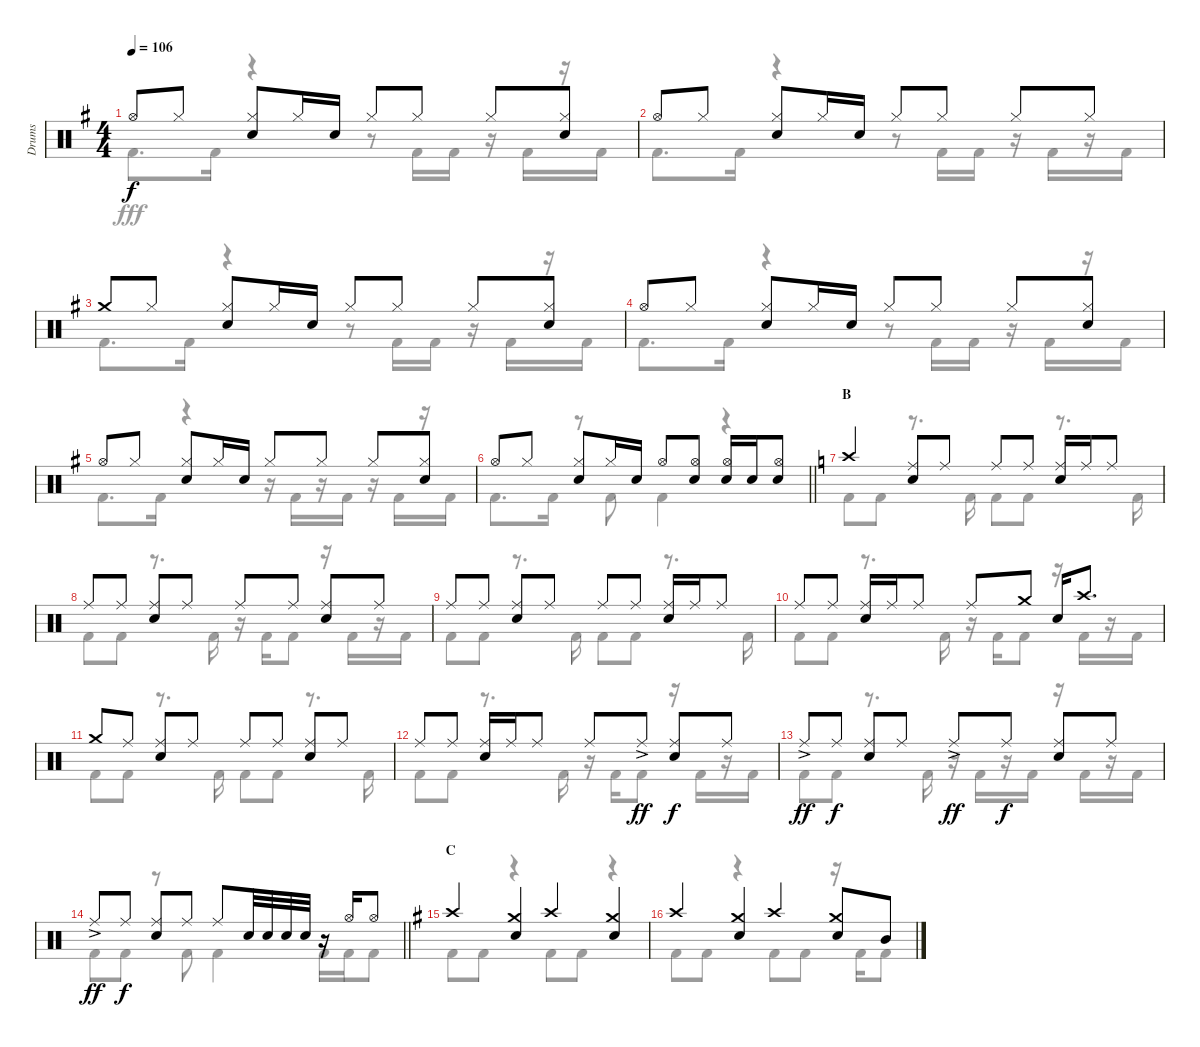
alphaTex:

\track ("Drums" "Drums") {instrument percussion}
\staff {score}
\articulation defaults
\voice
\ts (4 4)
\tempo 106
\clef neutral
\ks g "Hi-Hat (open)".8{dy f} "Hi-Hat (closed)".8
("Hi-Hat (closed)" "Snare (hit) 2").8 "Hi-Hat (closed)".16 "Snare (hit) 2".16 "Hi-Hat (closed)".8 "Hi-Hat (closed)".8 "Hi-Hat (closed)".8 ("Hi-Hat (closed)" "Snare (hit) 2").8 |
"Hi-Hat (open)".8 "Hi-Hat (closed)".8 ("Hi-Hat (closed)" "Snare (hit) 2").8 "Hi-Hat (closed)".16 "Snare (hit) 2".16 "Hi-Hat (closed)".8 "Hi-Hat (closed)".8 "Hi-Hat (closed)".8 "Hi-Hat (closed)".8 |
"Crash medium (hit)".8 "Hi-Hat (closed)".8 ("Hi-Hat (closed)" "Snare (hit) 2").8 "Hi-Hat (closed)".16 "Snare (hit) 2".16 "Hi-Hat (closed)".8 "Hi-Hat (closed)".8 "Hi-Hat (closed)".8 ("Hi-Hat (closed)" "Snare (hit) 2").8 |
"Hi-Hat (open)".8 "Hi-Hat (closed)".8 ("Hi-Hat (closed)" "Snare (hit) 2").8 "Hi-Hat (closed)".16 "Snare (hit) 2".16 "Hi-Hat (closed)".8 "Hi-Hat (closed)".8 "Hi-Hat (closed)".8 ("Hi-Hat (closed)" "Snare (hit) 2").8 |
"Hi-Hat (open)".8 "Hi-Hat (closed)".8 ("Hi-Hat (closed)" "Snare (hit) 2").8 "Hi-Hat (closed)".16 "Snare (hit) 2".16 "Hi-Hat (closed)".8 "Hi-Hat (closed)".8 "Hi-Hat (closed)".8 ("Hi-Hat (closed)" "Snare (hit) 2").8 |
\barLineRight lightlight "Hi-Hat (open)".8 "Hi-Hat (closed)".8
("Hi-Hat (closed)" "Snare (hit) 2").8 "Hi-Hat (closed)".16 "Snare (hit) 2".16 "Hi-Hat (open)".8 ("Hi-Hat (open)" "Snare (hit) 2").8 ("Hi-Hat (open)" "Snare (hit) 2").16 "Snare (hit) 2".16 ("Hi-Hat (open)" "Snare (hit) 2").8 |
\section ("" "B")
\ks c "Crash high (hit)".4
("Ride (middle)" "Snare (hit) 2").8 "Ride (middle)".8 "Ride (middle)".8 "Ride (middle)".8 ("Ride (middle)" "Snare (hit) 2").16 "Ride (middle)".16 "Ride (middle)".8 |
"Ride (middle)".8 "Ride (middle)".8 ("Ride (middle)" "Snare (hit) 2").8 "Ride (middle)".8 "Ride (middle)".8 "Ride (middle)".8 ("Ride (middle)" "Snare (hit) 2").8 "Ride (middle)".8 |
"Ride (middle)".8 "Ride (middle)".8 ("Ride (middle)" "Snare (hit) 2").8 "Ride (middle)".8 "Ride (middle)".8 "Ride (middle)".8 ("Ride (middle)" "Snare (hit) 2").16 "Ride (middle)".16 "Ride (middle)".8 |
"Ride (middle)".8 "Ride (middle)".8 ("Ride (middle)" "Snare (hit) 2").16 "Ride (middle)".16 "Ride (middle)".8 "Ride (middle)".8 "Crash medium (hit)".8 "Snare (hit) 2".16 "Crash high (hit)".8{d} |
"Crash medium (hit)".8 "Ride (middle)".8 ("Ride (middle)" "Snare (hit) 2").8 "Ride (middle)".8 "Ride (middle)".8 "Ride (middle)".8 ("Ride (middle)" "Snare (hit) 2").8 "Ride (middle)".8 |
"Ride (middle)".8 "Ride (middle)".8 ("Ride (middle)" "Snare (hit) 2").16 "Ride (middle)".16 "Ride (middle)".8 "Ride (middle)".8 "Ride (middle)"{ac}.8{dy ff} ("Ride (middle)" "Snare (hit) 2").8{dy f} "Ride (middle)".8 |
"Ride (middle)"{ac}.8{dy ff} "Ride (middle)".8{dy f} ("Ride (middle)" "Snare (hit) 2").8 "Ride (middle)".8 "Ride (middle)"{ac}.8{dy ff} "Ride (middle)".8{dy f} ("Ride (middle)" "Snare (hit) 2").8 "Ride (middle)".8 |
\barLineRight lightlight "Ride (middle)"{ac}.8{dy ff} "Ride (middle)".8{dy f}
("Ride (middle)" "Snare (hit) 2").8 "Ride (middle)".8 "Ride (middle)".8 "Snare (hit) 2".32 "Snare (hit) 2".32 "Snare (hit) 2".32 "Snare (hit) 2".32 r.16 "Hi-Hat (open)".16 "Hi-Hat (open)".8 |
\section ("" "C")
\ks g "Crash high (hit)".4
("Crash medium (hit)" "Snare (hit) 2").4 "Crash high (hit)".4 ("Crash medium (hit)" "Snare (hit) 2").4 |
"Crash high (hit)".4 ("Crash medium (hit)" "Snare (hit) 2").4 "Crash high (hit)".4 ("Crash medium (hit)" "Snare (hit) 2").8 "Mid Tom (hit)".8
\voice
\clef neutral
\ottava regular
\simile none
\ks g "Kick (hit) 2".8{d dy fff} "Kick (hit) 2".16
r.4 r.8 "Kick (hit) 2".16 "Kick (hit) 2".16 r.16 "Kick (hit) 2".16 r.16 "Kick (hit) 2".16 |
"Kick (hit) 2".8{d} "Kick (hit) 2".16 r.4 r.8 "Kick (hit) 2".16 "Kick (hit) 2".16 r.16 "Kick (hit) 2".16 r.16 "Kick (hit) 2".16 |
"Kick (hit) 2".8{d} "Kick (hit) 2".16 r.4 r.8 "Kick (hit) 2".16 "Kick (hit) 2".16 r.16 "Kick (hit) 2".16 r.16 "Kick (hit) 2".16 |
"Kick (hit) 2".8{d} "Kick (hit) 2".16 r.4 r.8 "Kick (hit) 2".16 "Kick (hit) 2".16 r.16 "Kick (hit) 2".16 r.16 "Kick (hit) 2".16 |
"Kick (hit) 2".8{d} "Kick (hit) 2".16 r.4 r.16 "Kick (hit) 2".16 r.16 "Kick (hit) 2".16 r.16 "Kick (hit) 2".16 r.16 "Kick (hit) 2".16 |
\barLineRight lightlight "Kick (hit) 2".8{d} "Kick (hit) 2".16
r.8 "Kick (hit) 2".8 "Kick (hit) 2".4 r.4 |
\ks c "Kick (hit) 2".8 "Kick (hit) 2".8
r.8{d} "Kick (hit) 2".16 "Kick (hit) 2".8 "Kick (hit) 2".8 r.8{d} "Kick (hit) 2".16 |
"Kick (hit) 2".8 "Kick (hit) 2".8 r.8{d} "Kick (hit) 2".16 r.16 "Kick (hit) 2".16 "Kick (hit) 2".8 r.16 "Kick (hit) 2".16 r.16 "Kick (hit) 2".16 |
"Kick (hit) 2".8 "Kick (hit) 2".8 r.8{d} "Kick (hit) 2".16 "Kick (hit) 2".8 "Kick (hit) 2".8 r.8{d} "Kick (hit) 2".16 |
"Kick (hit) 2".8 "Kick (hit) 2".8 r.8{d} "Kick (hit) 2".16 r.16 "Kick (hit) 2".16 "Kick (hit) 2".8 r.16 "Kick (hit) 2".16 r.16 "Kick (hit) 2".16 |
"Kick (hit) 2".8 "Kick (hit) 2".8 r.8{d} "Kick (hit) 2".16 "Kick (hit) 2".8 "Kick (hit) 2".8 r.8{d} "Kick (hit) 2".16 |
"Kick (hit) 2".8 "Kick (hit) 2".8 r.8{d} "Kick (hit) 2".16 r.16 "Kick (hit) 2".16 "Kick (hit) 2".8 r.16 "Kick (hit) 2".16 r.16 "Kick (hit) 2".16 |
"Kick (hit) 2".8 "Kick (hit) 2".8 r.8{d} "Kick (hit) 2".16 r.16 "Kick (hit) 2".16 r.16 "Kick (hit) 2".16 r.16 "Kick (hit) 2".16 r.16 "Kick (hit) 2".16 |
\barLineRight lightlight "Kick (hit) 2".8 "Kick (hit) 2".8
r.8 "Kick (hit) 2".8 "Kick (hit) 2".4 "Kick (hit) 2".16 "Kick (hit) 2".16 "Kick (hit) 2".8 |
\ks g "Kick (hit) 2".8 "Kick (hit) 2".8
r.4 "Kick (hit) 2".8 "Kick (hit) 2".8 r.4 |
"Kick (hit) 2".8 "Kick (hit) 2".8 r.4 "Kick (hit) 2".8 "Kick (hit) 2".8 r.16 "Kick (hit) 2".16 "Kick (hit) 2".8
